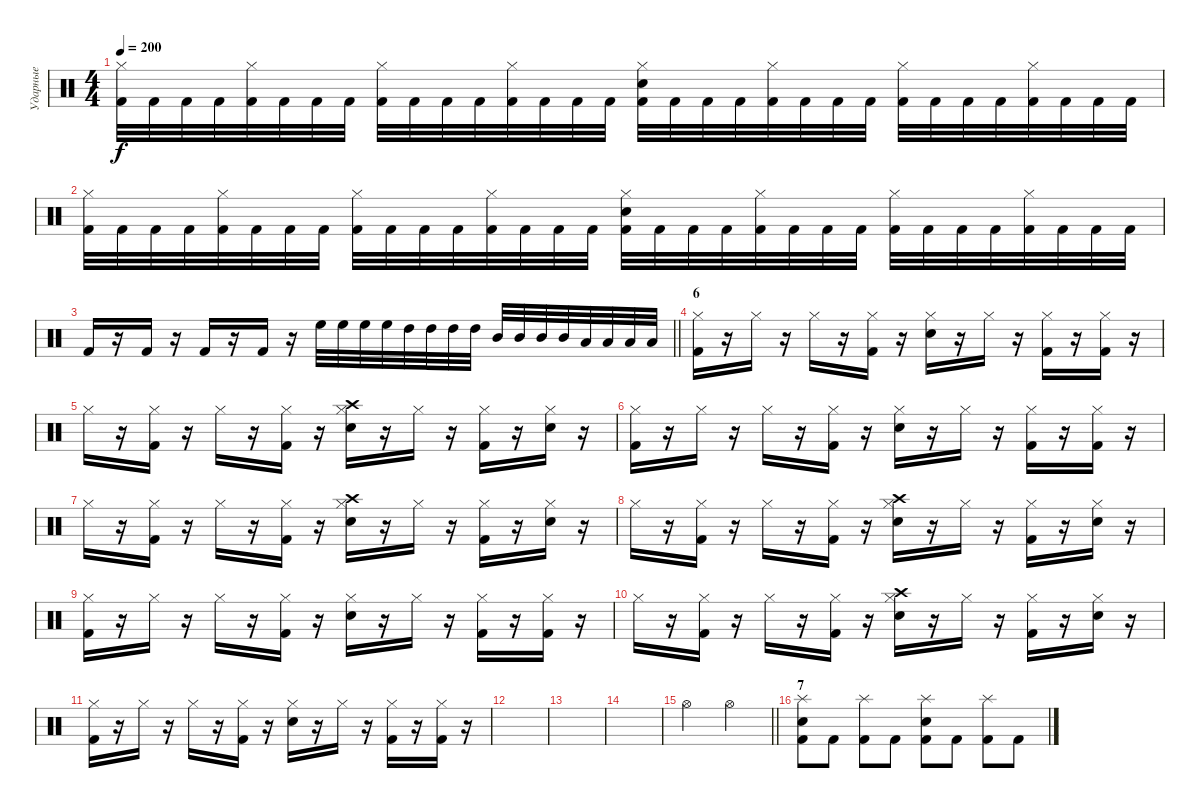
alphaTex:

\track ("Ударные" "Ударные") {instrument percussion}
\staff {score}
\articulation defaults
\ts (4 4)
\tempo 200
\clef neutral
\ks c
("Hi-Hat (closed)" "Kick (hit) 2").32{dy f} "Kick (hit) 2".32 "Kick (hit) 2".32 "Kick (hit) 2".32 ("Hi-Hat (closed)" "Kick (hit) 2").32 "Kick (hit) 2".32 "Kick (hit) 2".32 "Kick (hit) 2".32 ("Hi-Hat (closed)" "Kick (hit) 2").32 "Kick (hit) 2".32 "Kick (hit) 2".32 "Kick (hit) 2".32 ("Hi-Hat (closed)" "Kick (hit) 2").32 "Kick (hit) 2".32 "Kick (hit) 2".32 "Kick (hit) 2".32 ("Hi-Hat (closed)" "Electric Snare (hit)" "Kick (hit) 2").32 "Kick (hit) 2".32 "Kick (hit) 2".32 "Kick (hit) 2".32 ("Hi-Hat (closed)" "Kick (hit) 2").32 "Kick (hit) 2".32 "Kick (hit) 2".32 "Kick (hit) 2".32 ("Hi-Hat (closed)" "Kick (hit) 2").32 "Kick (hit) 2".32 "Kick (hit) 2".32 "Kick (hit) 2".32 ("Hi-Hat (closed)" "Kick (hit) 2").32 "Kick (hit) 2".32 "Kick (hit) 2".32 "Kick (hit) 2".32 |
("Hi-Hat (closed)" "Kick (hit) 2").32 "Kick (hit) 2".32 "Kick (hit) 2".32 "Kick (hit) 2".32 ("Hi-Hat (closed)" "Kick (hit) 2").32 "Kick (hit) 2".32 "Kick (hit) 2".32 "Kick (hit) 2".32 ("Hi-Hat (closed)" "Kick (hit) 2").32 "Kick (hit) 2".32 "Kick (hit) 2".32 "Kick (hit) 2".32 ("Hi-Hat (closed)" "Kick (hit) 2").32 "Kick (hit) 2".32 "Kick (hit) 2".32 "Kick (hit) 2".32 ("Hi-Hat (closed)" "Electric Snare (hit)" "Kick (hit) 2").32 "Kick (hit) 2".32 "Kick (hit) 2".32 "Kick (hit) 2".32 ("Hi-Hat (closed)" "Kick (hit) 2").32 "Kick (hit) 2".32 "Kick (hit) 2".32 "Kick (hit) 2".32 ("Hi-Hat (closed)" "Kick (hit) 2").32 "Kick (hit) 2".32 "Kick (hit) 2".32 "Kick (hit) 2".32 ("Hi-Hat (closed)" "Kick (hit) 2").32 "Kick (hit) 2".32 "Kick (hit) 2".32 "Kick (hit) 2".32 |
\barLineRight lightlight "Kick (hit) 2".16
r.16 "Kick (hit) 2".16 r.16 "Kick (hit) 2".16 r.16 "Kick (hit) 2".16 r.16 "High Floor Tom (hit)".32 "High Floor Tom (hit)".32 "High Floor Tom (hit)".32 "High Floor Tom (hit)".32 "High Tom (hit)".32 "High Tom (hit)".32 "High Tom (hit)".32 "High Tom (hit)".32 "Mid Tom (hit)".32 "Mid Tom (hit)".32 "Mid Tom (hit)".32 "Mid Tom (hit)".32 "Low Tom (hit)".32 "Low Tom (hit)".32 "Low Tom (hit)".32 "Low Tom (hit)".32 |
\section ("" "6")
("Hi-Hat (closed)" "Kick (hit) 2").16 r.16 "Hi-Hat (closed)".16 r.16 "Hi-Hat (closed)".16 r.16 ("Hi-Hat (closed)" "Kick (hit) 2").16 r.16 ("Hi-Hat (closed)" "Electric Snare (hit)").16 r.16 "Hi-Hat (closed)".16 r.16 ("Hi-Hat (closed)" "Kick (hit) 2").16 r.16 ("Hi-Hat (closed)" "Kick (hit) 2").16 r.16 |
"Hi-Hat (closed)".16 r.16 ("Hi-Hat (closed)" "Kick (hit) 2").16 r.16 "Hi-Hat (closed)".16 r.16 ("Hi-Hat (closed)" "Kick (hit) 2").16 r.16 ("Hi-Hat (closed)" "Crash high (hit)" "Electric Snare (hit)").16 r.16 "Hi-Hat (closed)".16 r.16 ("Hi-Hat (closed)" "Kick (hit) 2").16 r.16 ("Hi-Hat (closed)" "Electric Snare (hit)").16 r.16 |
("Hi-Hat (closed)" "Kick (hit) 2").16 r.16 "Hi-Hat (closed)".16 r.16 "Hi-Hat (closed)".16 r.16 ("Hi-Hat (closed)" "Kick (hit) 2").16 r.16 ("Hi-Hat (closed)" "Electric Snare (hit)").16 r.16 "Hi-Hat (closed)".16 r.16 ("Hi-Hat (closed)" "Kick (hit) 2").16 r.16 ("Hi-Hat (closed)" "Kick (hit) 2").16 r.16 |
"Hi-Hat (closed)".16 r.16 ("Hi-Hat (closed)" "Kick (hit) 2").16 r.16 "Hi-Hat (closed)".16 r.16 ("Hi-Hat (closed)" "Kick (hit) 2").16 r.16 ("Hi-Hat (closed)" "Crash high (hit)" "Electric Snare (hit)").16 r.16 "Hi-Hat (closed)".16 r.16 ("Hi-Hat (closed)" "Kick (hit) 2").16 r.16 ("Hi-Hat (closed)" "Electric Snare (hit)").16 r.16 |
"Hi-Hat (closed)".16 r.16 ("Hi-Hat (closed)" "Kick (hit) 2").16 r.16 "Hi-Hat (closed)".16 r.16 ("Hi-Hat (closed)" "Kick (hit) 2").16 r.16 ("Hi-Hat (closed)" "Crash high (hit)" "Electric Snare (hit)").16 r.16 "Hi-Hat (closed)".16 r.16 ("Hi-Hat (closed)" "Kick (hit) 2").16 r.16 ("Hi-Hat (closed)" "Electric Snare (hit)").16 r.16 |
("Hi-Hat (closed)" "Kick (hit) 2").16 r.16 "Hi-Hat (closed)".16 r.16 "Hi-Hat (closed)".16 r.16 ("Hi-Hat (closed)" "Kick (hit) 2").16 r.16 ("Hi-Hat (closed)" "Electric Snare (hit)").16 r.16 "Hi-Hat (closed)".16 r.16 ("Hi-Hat (closed)" "Kick (hit) 2").16 r.16 ("Hi-Hat (closed)" "Kick (hit) 2").16 r.16 |
"Hi-Hat (closed)".16 r.16 ("Hi-Hat (closed)" "Kick (hit) 2").16 r.16 "Hi-Hat (closed)".16 r.16 ("Hi-Hat (closed)" "Kick (hit) 2").16 r.16 ("Hi-Hat (closed)" "Crash high (hit)" "Electric Snare (hit)").16 r.16 "Hi-Hat (closed)".16 r.16 ("Hi-Hat (closed)" "Kick (hit) 2").16 r.16 ("Hi-Hat (closed)" "Electric Snare (hit)").16 r.16 |
("Hi-Hat (closed)" "Kick (hit) 2").16 r.16 "Hi-Hat (closed)".16 r.16 "Hi-Hat (closed)".16 r.16 ("Hi-Hat (closed)" "Kick (hit) 2").16 r.16 ("Hi-Hat (closed)" "Electric Snare (hit)").16 r.16 "Hi-Hat (closed)".16 r.16 ("Hi-Hat (closed)" "Kick (hit) 2").16 r.16 ("Hi-Hat (closed)" "Kick (hit) 2").16 r.16 |
|
|
|
\barLineRight lightlight "Hi-Hat (open)".2 "Hi-Hat (open)".2
|
\section ("" "7")
("Splash (hit)" "Electric Snare (hit)" "Kick (hit) 2").8 "Kick (hit) 2".8 ("Splash (hit)" "Kick (hit) 2").8 "Kick (hit) 2".8 ("Splash (hit)" "Electric Snare (hit)" "Kick (hit) 2").8 "Kick (hit) 2".8 ("Splash (hit)" "Kick (hit) 2").8 "Kick (hit) 2".8
